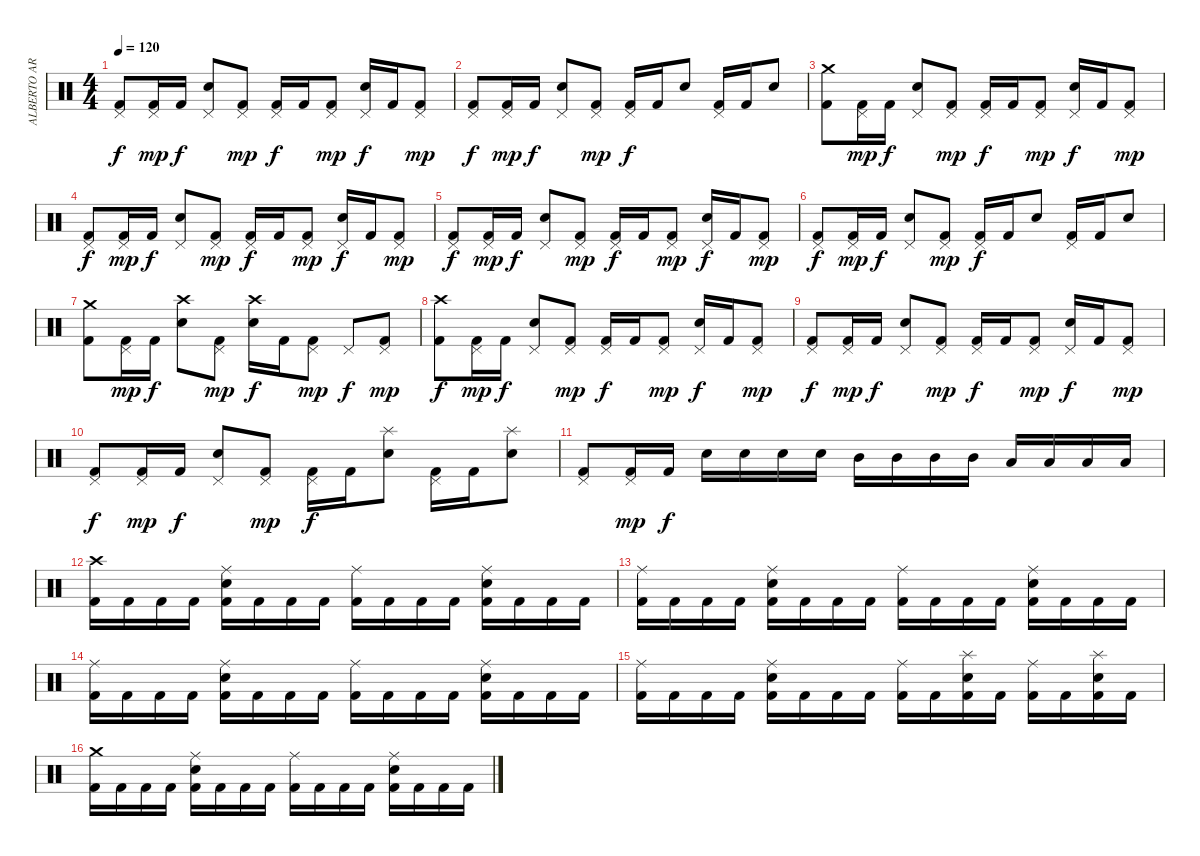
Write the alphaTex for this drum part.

\track ("ALBERTO ARDINES" "ALBERTO AR") {instrument percussion}
\staff {score}
\articulation defaults
\ts (4 4)
\tempo 120
\clef neutral
\ks c
("Pedal Hi-Hat (hit)" "Kick (hit) 2").8{dy f} ("Pedal Hi-Hat (hit)" "Kick (hit) 2").16{dy mp} "Kick (hit) 2".16{dy f} ("Pedal Hi-Hat (hit)" "Electric Snare (hit)").8 ("Pedal Hi-Hat (hit)" "Kick (hit) 2").8{dy mp} ("Pedal Hi-Hat (hit)" "Kick (hit) 2").16{dy f} "Kick (hit) 2".16 ("Pedal Hi-Hat (hit)" "Kick (hit) 2").8{dy mp} ("Pedal Hi-Hat (hit)" "Electric Snare (hit)").16{dy f} "Kick (hit) 2".16 ("Pedal Hi-Hat (hit)" "Kick (hit) 2").8{dy mp} |
("Pedal Hi-Hat (hit)" "Kick (hit) 2").8{dy f} ("Pedal Hi-Hat (hit)" "Kick (hit) 2").16{dy mp} "Kick (hit) 2".16{dy f} ("Pedal Hi-Hat (hit)" "Electric Snare (hit)").8 ("Pedal Hi-Hat (hit)" "Kick (hit) 2").8{dy mp} ("Pedal Hi-Hat (hit)" "Kick (hit) 2").16{dy f} "Kick (hit) 2".16 "Electric Snare (hit)".8 ("Pedal Hi-Hat (hit)" "Kick (hit) 2").16 "Kick (hit) 2".16 "Electric Snare (hit)".8 |
("Crash medium (hit)" "Kick (hit) 2").8 ("Pedal Hi-Hat (hit)" "Kick (hit) 2").16{dy mp} "Kick (hit) 2".16{dy f} ("Pedal Hi-Hat (hit)" "Electric Snare (hit)").8 ("Pedal Hi-Hat (hit)" "Kick (hit) 2").8{dy mp} ("Pedal Hi-Hat (hit)" "Kick (hit) 2").16{dy f} "Kick (hit) 2".16 ("Pedal Hi-Hat (hit)" "Kick (hit) 2").8{dy mp} ("Pedal Hi-Hat (hit)" "Electric Snare (hit)").16{dy f} "Kick (hit) 2".16 ("Pedal Hi-Hat (hit)" "Kick (hit) 2").8{dy mp} |
("Pedal Hi-Hat (hit)" "Kick (hit) 2").8{dy f} ("Pedal Hi-Hat (hit)" "Kick (hit) 2").16{dy mp} "Kick (hit) 2".16{dy f} ("Pedal Hi-Hat (hit)" "Electric Snare (hit)").8 ("Pedal Hi-Hat (hit)" "Kick (hit) 2").8{dy mp} ("Pedal Hi-Hat (hit)" "Kick (hit) 2").16{dy f} "Kick (hit) 2".16 ("Pedal Hi-Hat (hit)" "Kick (hit) 2").8{dy mp} ("Pedal Hi-Hat (hit)" "Electric Snare (hit)").16{dy f} "Kick (hit) 2".16 ("Pedal Hi-Hat (hit)" "Kick (hit) 2").8{dy mp} |
("Pedal Hi-Hat (hit)" "Kick (hit) 2").8{dy f} ("Pedal Hi-Hat (hit)" "Kick (hit) 2").16{dy mp} "Kick (hit) 2".16{dy f} ("Pedal Hi-Hat (hit)" "Electric Snare (hit)").8 ("Pedal Hi-Hat (hit)" "Kick (hit) 2").8{dy mp} ("Pedal Hi-Hat (hit)" "Kick (hit) 2").16{dy f} "Kick (hit) 2".16 ("Pedal Hi-Hat (hit)" "Kick (hit) 2").8{dy mp} ("Pedal Hi-Hat (hit)" "Electric Snare (hit)").16{dy f} "Kick (hit) 2".16 ("Pedal Hi-Hat (hit)" "Kick (hit) 2").8{dy mp} |
("Pedal Hi-Hat (hit)" "Kick (hit) 2").8{dy f} ("Pedal Hi-Hat (hit)" "Kick (hit) 2").16{dy mp} "Kick (hit) 2".16{dy f} ("Pedal Hi-Hat (hit)" "Electric Snare (hit)").8 ("Pedal Hi-Hat (hit)" "Kick (hit) 2").8{dy mp} ("Pedal Hi-Hat (hit)" "Kick (hit) 2").16{dy f} "Kick (hit) 2".16 "Electric Snare (hit)".8 ("Pedal Hi-Hat (hit)" "Kick (hit) 2").16 "Kick (hit) 2".16 "Electric Snare (hit)".8 |
("Crash medium (hit)" "Kick (hit) 2").8 ("Pedal Hi-Hat (hit)" "Kick (hit) 2").16{dy mp} "Kick (hit) 2".16{dy f} ("Crash high (hit)" "Electric Snare (hit)").8 ("Pedal Hi-Hat (hit)" "Kick (hit) 2").8{dy mp} ("Crash high (hit)" "Electric Snare (hit)").16{dy f} "Kick (hit) 2".16 ("Pedal Hi-Hat (hit)" "Kick (hit) 2").8{dy mp} "Pedal Hi-Hat (hit)".8{dy f} ("Pedal Hi-Hat (hit)" "Kick (hit) 2").8{dy mp} |
("Crash high (hit)" "Kick (hit) 2").8{dy f} ("Pedal Hi-Hat (hit)" "Kick (hit) 2").16{dy mp} "Kick (hit) 2".16{dy f} ("Pedal Hi-Hat (hit)" "Electric Snare (hit)").8 ("Pedal Hi-Hat (hit)" "Kick (hit) 2").8{dy mp} ("Pedal Hi-Hat (hit)" "Kick (hit) 2").16{dy f} "Kick (hit) 2".16 ("Pedal Hi-Hat (hit)" "Kick (hit) 2").8{dy mp} ("Pedal Hi-Hat (hit)" "Electric Snare (hit)").16{dy f} "Kick (hit) 2".16 ("Pedal Hi-Hat (hit)" "Kick (hit) 2").8{dy mp} |
("Pedal Hi-Hat (hit)" "Kick (hit) 2").8{dy f} ("Pedal Hi-Hat (hit)" "Kick (hit) 2").16{dy mp} "Kick (hit) 2".16{dy f} ("Pedal Hi-Hat (hit)" "Electric Snare (hit)").8 ("Pedal Hi-Hat (hit)" "Kick (hit) 2").8{dy mp} ("Pedal Hi-Hat (hit)" "Kick (hit) 2").16{dy f} "Kick (hit) 2".16 ("Pedal Hi-Hat (hit)" "Kick (hit) 2").8{dy mp} ("Pedal Hi-Hat (hit)" "Electric Snare (hit)").16{dy f} "Kick (hit) 2".16 ("Pedal Hi-Hat (hit)" "Kick (hit) 2").8{dy mp} |
("Pedal Hi-Hat (hit)" "Kick (hit) 2").8{dy f} ("Pedal Hi-Hat (hit)" "Kick (hit) 2").16{dy mp} "Kick (hit) 2".16{dy f} ("Pedal Hi-Hat (hit)" "Electric Snare (hit)").8 ("Pedal Hi-Hat (hit)" "Kick (hit) 2").8{dy mp} ("Pedal Hi-Hat (hit)" "Kick (hit) 2").16{dy f} "Kick (hit) 2".16 ("Splash (hit)" "Electric Snare (hit)").8 ("Pedal Hi-Hat (hit)" "Kick (hit) 2").16 "Kick (hit) 2".16 ("Splash (hit)" "Electric Snare (hit)").8 |
("Pedal Hi-Hat (hit)" "Kick (hit) 2").8 ("Pedal Hi-Hat (hit)" "Kick (hit) 2").16{dy mp} "Kick (hit) 2".16{dy f} "Electric Snare (hit)".16 "Electric Snare (hit)".16 "Electric Snare (hit)".16 "Electric Snare (hit)".16 "Mid Tom (hit)".16 "Mid Tom (hit)".16 "Mid Tom (hit)".16 "Mid Tom (hit)".16 "Low Tom (hit)".16 "Low Tom (hit)".16 "Low Tom (hit)".16 "Low Tom (hit)".16 |
("Crash high (hit)" "Kick (hit) 2").16 "Kick (hit) 2".16 "Kick (hit) 2".16 "Kick (hit) 2".16 ("Ride (middle)" "Electric Snare (hit)" "Kick (hit) 2").16 "Kick (hit) 2".16 "Kick (hit) 2".16 "Kick (hit) 2".16 ("Ride (middle)" "Kick (hit) 2").16 "Kick (hit) 2".16 "Kick (hit) 2".16 "Kick (hit) 2".16 ("Ride (middle)" "Electric Snare (hit)" "Kick (hit) 2").16 "Kick (hit) 2".16 "Kick (hit) 2".16 "Kick (hit) 2".16 |
("Ride (middle)" "Kick (hit) 2").16 "Kick (hit) 2".16 "Kick (hit) 2".16 "Kick (hit) 2".16 ("Ride (middle)" "Electric Snare (hit)" "Kick (hit) 2").16 "Kick (hit) 2".16 "Kick (hit) 2".16 "Kick (hit) 2".16 ("Ride (middle)" "Kick (hit) 2").16 "Kick (hit) 2".16 "Kick (hit) 2".16 "Kick (hit) 2".16 ("Ride (middle)" "Electric Snare (hit)" "Kick (hit) 2").16 "Kick (hit) 2".16 "Kick (hit) 2".16 "Kick (hit) 2".16 |
("Ride (middle)" "Kick (hit) 2").16 "Kick (hit) 2".16 "Kick (hit) 2".16 "Kick (hit) 2".16 ("Ride (middle)" "Electric Snare (hit)" "Kick (hit) 2").16 "Kick (hit) 2".16 "Kick (hit) 2".16 "Kick (hit) 2".16 ("Ride (middle)" "Kick (hit) 2").16 "Kick (hit) 2".16 "Kick (hit) 2".16 "Kick (hit) 2".16 ("Ride (middle)" "Electric Snare (hit)" "Kick (hit) 2").16 "Kick (hit) 2".16 "Kick (hit) 2".16 "Kick (hit) 2".16 |
("Ride (middle)" "Kick (hit) 2").16 "Kick (hit) 2".16 "Kick (hit) 2".16 "Kick (hit) 2".16 ("Ride (middle)" "Electric Snare (hit)" "Kick (hit) 2").16 "Kick (hit) 2".16 "Kick (hit) 2".16 "Kick (hit) 2".16 ("Ride (middle)" "Kick (hit) 2").16 "Kick (hit) 2".16 ("Splash (hit)" "Electric Snare (hit)" "Kick (hit) 2").16 "Kick (hit) 2".16 ("Ride (middle)" "Kick (hit) 2").16 "Kick (hit) 2".16 ("Splash (hit)" "Electric Snare (hit)" "Kick (hit) 2").16 "Kick (hit) 2".16 |
("Crash medium (hit)" "Kick (hit) 2").16 "Kick (hit) 2".16 "Kick (hit) 2".16 "Kick (hit) 2".16 ("Ride (middle)" "Electric Snare (hit)" "Kick (hit) 2").16 "Kick (hit) 2".16 "Kick (hit) 2".16 "Kick (hit) 2".16 ("Ride (middle)" "Kick (hit) 2").16 "Kick (hit) 2".16 "Kick (hit) 2".16 "Kick (hit) 2".16 ("Ride (middle)" "Electric Snare (hit)" "Kick (hit) 2").16 "Kick (hit) 2".16 "Kick (hit) 2".16 "Kick (hit) 2".16
